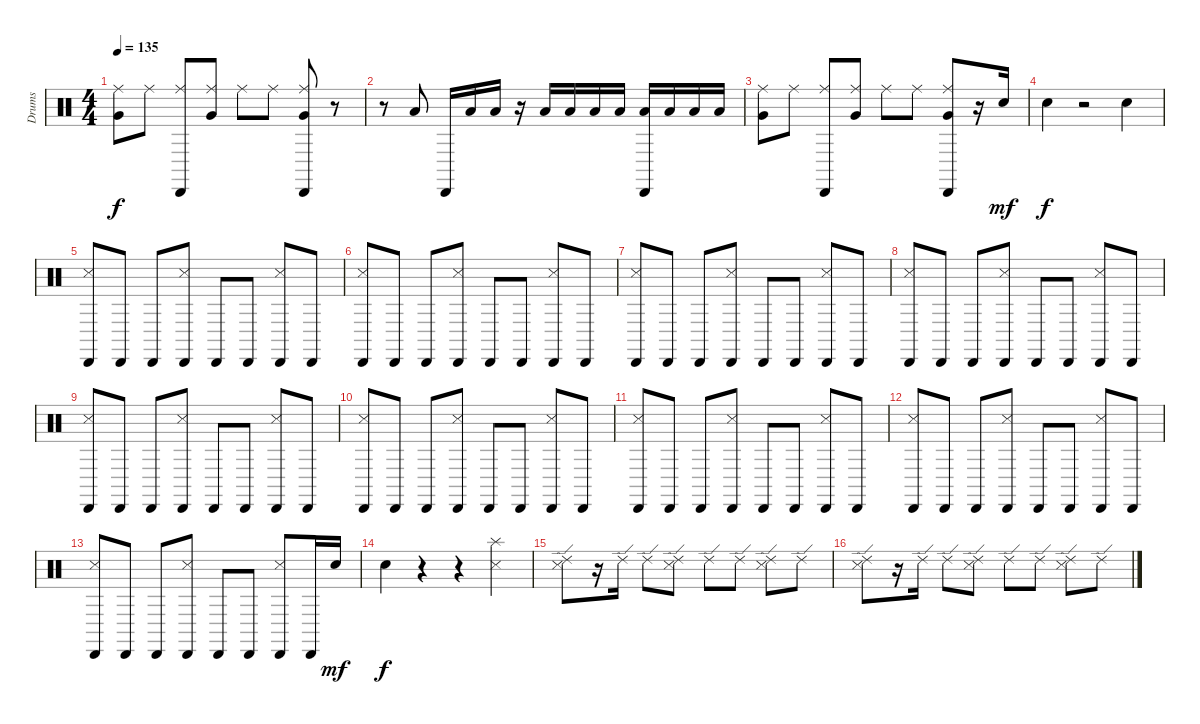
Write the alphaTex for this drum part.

\track ("Drums" "Drums") {instrument percussion}
\staff {score}
\articulation defaults
\ts (4 4)
\tempo 135
\clef neutral
\ks c
("Ride (middle)" "Very Low Tom (hit)").8{dy f} "Ride (middle)".8 ("Cabasa (hit)" "Ride (middle)").8 ("Ride (middle)" "Very Low Tom (hit)").8 "Ride (middle)".8 "Ride (middle)".8 ("Cabasa (hit)" "Ride (middle)" "Very Low Tom (hit)").8 r.8 |
r.8 "Low Tom (hit)".8 "Cabasa (hit)".16 "Low Tom (hit)".16 "Low Tom (hit)".16 r.16 "Low Tom (hit)".16 "Low Tom (hit)".16 "Low Tom (hit)".16 "Low Tom (hit)".16 ("Cabasa (hit)" "Low Tom (hit)").16 "Low Tom (hit)".16 "Low Tom (hit)".16 "Low Tom (hit)".16 |
("Ride (middle)" "Very Low Tom (hit)").8 "Ride (middle)".8 ("Cabasa (hit)" "Ride (middle)").8 ("Ride (middle)" "Very Low Tom (hit)").8 "Ride (middle)".8 "Ride (middle)".8 ("Cabasa (hit)" "Ride (middle)" "Very Low Tom (hit)").8 r.16 "Electric Snare (hit)".16{dy mf} |
"Electric Snare (hit)".4{dy f} r.2 "Electric Snare (hit)".4 |
("Cabasa (hit)" "Snare (side stick) 3").8 "Cabasa (hit)".8 "Cabasa (hit)".8 ("Cabasa (hit)" "Snare (side stick) 3").8 "Cabasa (hit)".8 "Cabasa (hit)".8 ("Cabasa (hit)" "Snare (side stick) 3").8 "Cabasa (hit)".8 |
("Cabasa (hit)" "Snare (side stick) 3").8 "Cabasa (hit)".8 "Cabasa (hit)".8 ("Cabasa (hit)" "Snare (side stick) 3").8 "Cabasa (hit)".8 "Cabasa (hit)".8 ("Cabasa (hit)" "Snare (side stick) 3").8 "Cabasa (hit)".8 |
("Cabasa (hit)" "Snare (side stick) 3").8 "Cabasa (hit)".8 "Cabasa (hit)".8 ("Cabasa (hit)" "Snare (side stick) 3").8 "Cabasa (hit)".8 "Cabasa (hit)".8 ("Cabasa (hit)" "Snare (side stick) 3").8 "Cabasa (hit)".8 |
("Cabasa (hit)" "Snare (side stick) 3").8 "Cabasa (hit)".8 "Cabasa (hit)".8 ("Cabasa (hit)" "Snare (side stick) 3").8 "Cabasa (hit)".8 "Cabasa (hit)".8 ("Cabasa (hit)" "Snare (side stick) 3").8 "Cabasa (hit)".8 |
("Cabasa (hit)" "Snare (side stick) 3").8 "Cabasa (hit)".8 "Cabasa (hit)".8 ("Cabasa (hit)" "Snare (side stick) 3").8 "Cabasa (hit)".8 "Cabasa (hit)".8 ("Cabasa (hit)" "Snare (side stick) 3").8 "Cabasa (hit)".8 |
("Cabasa (hit)" "Snare (side stick) 3").8 "Cabasa (hit)".8 "Cabasa (hit)".8 ("Cabasa (hit)" "Snare (side stick) 3").8 "Cabasa (hit)".8 "Cabasa (hit)".8 ("Cabasa (hit)" "Snare (side stick) 3").8 "Cabasa (hit)".8 |
("Cabasa (hit)" "Snare (side stick) 3").8 "Cabasa (hit)".8 "Cabasa (hit)".8 ("Cabasa (hit)" "Snare (side stick) 3").8 "Cabasa (hit)".8 "Cabasa (hit)".8 ("Cabasa (hit)" "Snare (side stick) 3").8 "Cabasa (hit)".8 |
("Cabasa (hit)" "Snare (side stick) 3").8 "Cabasa (hit)".8 "Cabasa (hit)".8 ("Cabasa (hit)" "Snare (side stick) 3").8 "Cabasa (hit)".8 "Cabasa (hit)".8 ("Cabasa (hit)" "Snare (side stick) 3").8 "Cabasa (hit)".8 |
("Cabasa (hit)" "Snare (side stick) 3").8 "Cabasa (hit)".8 "Cabasa (hit)".8 ("Cabasa (hit)" "Snare (side stick) 3").8 "Cabasa (hit)".8 "Cabasa (hit)".8 ("Cabasa (hit)" "Snare (side stick) 3").8 "Cabasa (hit)".16 "Electric Snare (hit)".16{dy mf} |
"Electric Snare (hit)".4{dy f} r.4 r.4 ("Splash (hit)" "Snare (side stick) 3").4 |
("Ride (edge) 2" "Snare (side stick) 3").8 r.16 "Ride (edge) 2".16 "Ride (edge) 2".8 ("Ride (edge) 2" "Snare (side stick) 3").8 "Ride (edge) 2".8 "Ride (edge) 2".8 ("Ride (edge) 2" "Snare (side stick) 3").8 "Ride (edge) 2".8 |
("Ride (edge) 2" "Snare (side stick) 3").8 r.16 "Ride (edge) 2".16 "Ride (edge) 2".8 ("Ride (edge) 2" "Snare (side stick) 3").8 "Ride (edge) 2".8 "Ride (edge) 2".8 ("Ride (edge) 2" "Snare (side stick) 3").8 "Ride (edge) 2".8
